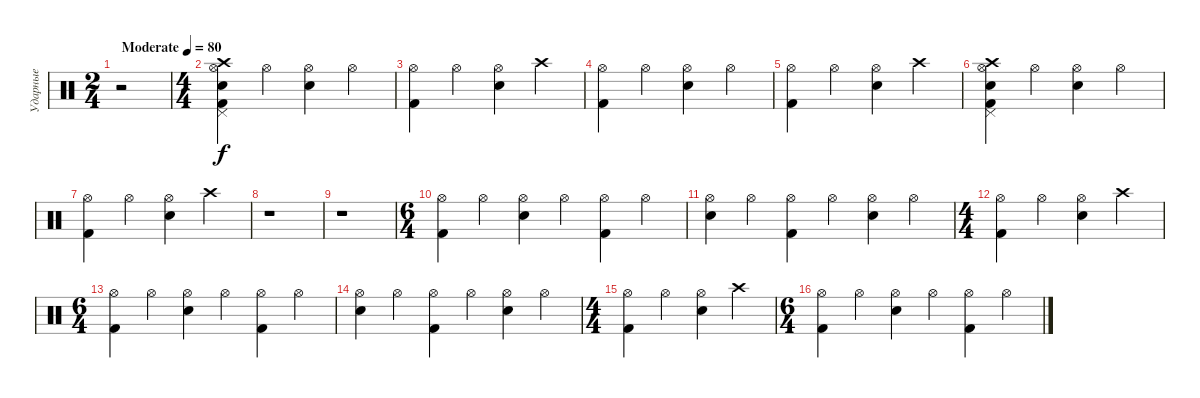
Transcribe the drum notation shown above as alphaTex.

\track ("Ударные" "Ударные") {instrument percussion}
\staff {score}
\articulation defaults
\ts (2 4)
\tempo (80 "Moderate")
\clef neutral
\ks c
r.2{dy f} |
\ts (4 4)
("Crash high (hit)" "Hi-Hat (open)" "Pedal Hi-Hat (hit)" "Electric Snare (hit)" "Kick (hit) 2").4 "Hi-Hat (open)".4 ("Hi-Hat (open)" "Electric Snare (hit)").4 "Hi-Hat (open)".4 |
("Hi-Hat (open)" "Kick (hit) 2").4 "Hi-Hat (open)".4 ("Hi-Hat (open)" "Electric Snare (hit)").4 "Crash high (hit)".4 |
("Hi-Hat (open)" "Kick (hit) 2").4 "Hi-Hat (open)".4 ("Hi-Hat (open)" "Electric Snare (hit)").4 "Hi-Hat (open)".4 |
("Hi-Hat (open)" "Kick (hit) 2").4 "Hi-Hat (open)".4 ("Hi-Hat (open)" "Electric Snare (hit)").4 "Crash high (hit)".4 |
("Crash high (hit)" "Hi-Hat (open)" "Pedal Hi-Hat (hit)" "Electric Snare (hit)" "Kick (hit) 2").4 "Hi-Hat (open)".4 ("Hi-Hat (open)" "Electric Snare (hit)").4 "Hi-Hat (open)".4 |
("Hi-Hat (open)" "Kick (hit) 2").4 "Hi-Hat (open)".4 ("Hi-Hat (open)" "Electric Snare (hit)").4 "Crash high (hit)".4 |
r.1 |
r.1 |
\ts (6 4)
("Hi-Hat (open)" "Kick (hit) 2").4 "Hi-Hat (open)".4 ("Hi-Hat (open)" "Electric Snare (hit)").4 "Hi-Hat (open)".4 ("Hi-Hat (open)" "Kick (hit) 2").4 "Hi-Hat (open)".4 |
("Hi-Hat (open)" "Electric Snare (hit)").4 "Hi-Hat (open)".4 ("Hi-Hat (open)" "Kick (hit) 2").4 "Hi-Hat (open)".4 ("Hi-Hat (open)" "Electric Snare (hit)").4 "Hi-Hat (open)".4 |
\ts (4 4)
("Hi-Hat (open)" "Kick (hit) 2").4 "Hi-Hat (open)".4 ("Hi-Hat (open)" "Electric Snare (hit)").4 "Crash high (hit)".4 |
\ts (6 4)
("Hi-Hat (open)" "Kick (hit) 2").4 "Hi-Hat (open)".4 ("Hi-Hat (open)" "Electric Snare (hit)").4 "Hi-Hat (open)".4 ("Hi-Hat (open)" "Kick (hit) 2").4 "Hi-Hat (open)".4 |
("Hi-Hat (open)" "Electric Snare (hit)").4 "Hi-Hat (open)".4 ("Hi-Hat (open)" "Kick (hit) 2").4 "Hi-Hat (open)".4 ("Hi-Hat (open)" "Electric Snare (hit)").4 "Hi-Hat (open)".4 |
\ts (4 4)
("Hi-Hat (open)" "Kick (hit) 2").4 "Hi-Hat (open)".4 ("Hi-Hat (open)" "Electric Snare (hit)").4 "Crash high (hit)".4 |
\ts (6 4)
("Hi-Hat (open)" "Kick (hit) 2").4 "Hi-Hat (open)".4 ("Hi-Hat (open)" "Electric Snare (hit)").4 "Hi-Hat (open)".4 ("Hi-Hat (open)" "Kick (hit) 2").4 "Hi-Hat (open)".4
